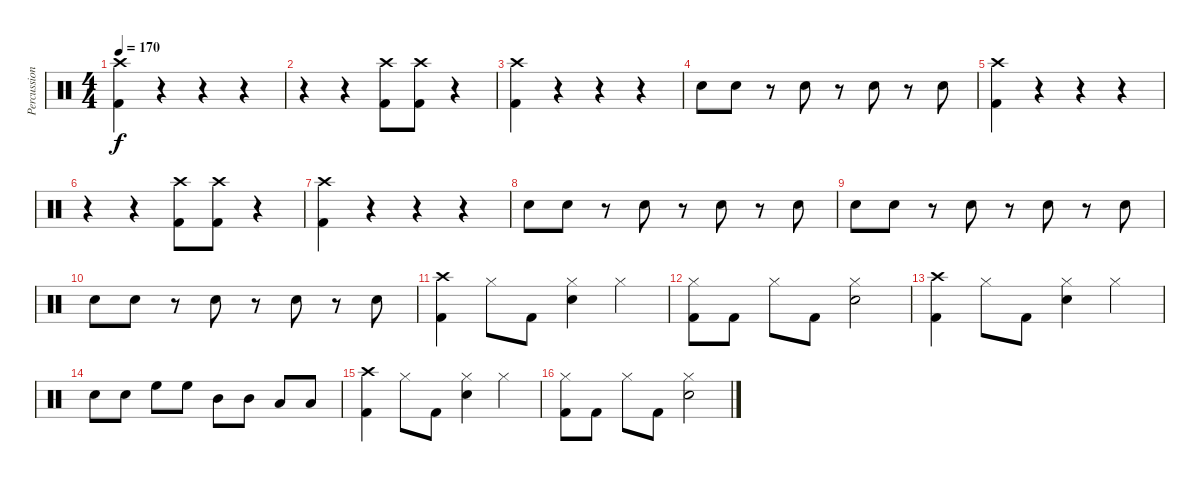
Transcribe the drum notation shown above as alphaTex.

\track ("Percussions" "Percussion") {instrument percussion}
\staff {score}
\articulation defaults
\ts (4 4)
\tempo 170
\clef neutral
\ks c
("Crash high (hit)" "Kick (hit) 2").4{dy f} r.4 r.4 r.4 |
r.4 r.4 ("Crash high (hit)" "Kick (hit) 2").8 ("Crash high (hit)" "Kick (hit) 2").8 r.4 |
("Crash high (hit)" "Kick (hit) 2").4 r.4 r.4 r.4 |
"Snare (hit) 2".8 "Snare (hit) 2".8 r.8 "Snare (hit) 2".8 r.8 "Snare (hit) 2".8 r.8 "Snare (hit) 2".8 |
("Crash high (hit)" "Kick (hit) 2").4 r.4 r.4 r.4 |
r.4 r.4 ("Crash high (hit)" "Kick (hit) 2").8 ("Crash high (hit)" "Kick (hit) 2").8 r.4 |
("Crash high (hit)" "Kick (hit) 2").4 r.4 r.4 r.4 |
"Snare (hit) 2".8 "Snare (hit) 2".8 r.8 "Snare (hit) 2".8 r.8 "Snare (hit) 2".8 r.8 "Snare (hit) 2".8 |
"Snare (hit) 2".8 "Snare (hit) 2".8 r.8 "Snare (hit) 2".8 r.8 "Snare (hit) 2".8 r.8 "Snare (hit) 2".8 |
"Snare (hit) 2".8 "Snare (hit) 2".8 r.8 "Snare (hit) 2".8 r.8 "Snare (hit) 2".8 r.8 "Snare (hit) 2".8 |
("Crash high (hit)" "Kick (hit) 2").4 "Hi-Hat (closed)".8 "Kick (hit) 2".8 ("Snare (hit) 2" "Hi-Hat (closed)").4 "Hi-Hat (closed)".4 |
("Hi-Hat (closed)" "Kick (hit) 2").8 "Kick (hit) 2".8 "Hi-Hat (closed)".8 "Kick (hit) 2".8 ("Hi-Hat (closed)" "Snare (hit) 2").2 |
("Crash high (hit)" "Kick (hit) 2").4 "Hi-Hat (closed)".8 "Kick (hit) 2".8 ("Snare (hit) 2" "Hi-Hat (closed)").4 "Hi-Hat (closed)".4 |
"Snare (hit) 2".8 "Snare (hit) 2".8 "High Floor Tom (hit)".8 "High Floor Tom (hit)".8 "Mid Tom (hit)".8 "Mid Tom (hit)".8 "Low Floor Tom (hit)".8 "Low Floor Tom (hit)".8 |
("Crash high (hit)" "Kick (hit) 2").4 "Hi-Hat (closed)".8 "Kick (hit) 2".8 ("Snare (hit) 2" "Hi-Hat (closed)").4 "Hi-Hat (closed)".4 |
("Hi-Hat (closed)" "Kick (hit) 2").8 "Kick (hit) 2".8 "Hi-Hat (closed)".8 "Kick (hit) 2".8 ("Hi-Hat (closed)" "Snare (hit) 2").2
